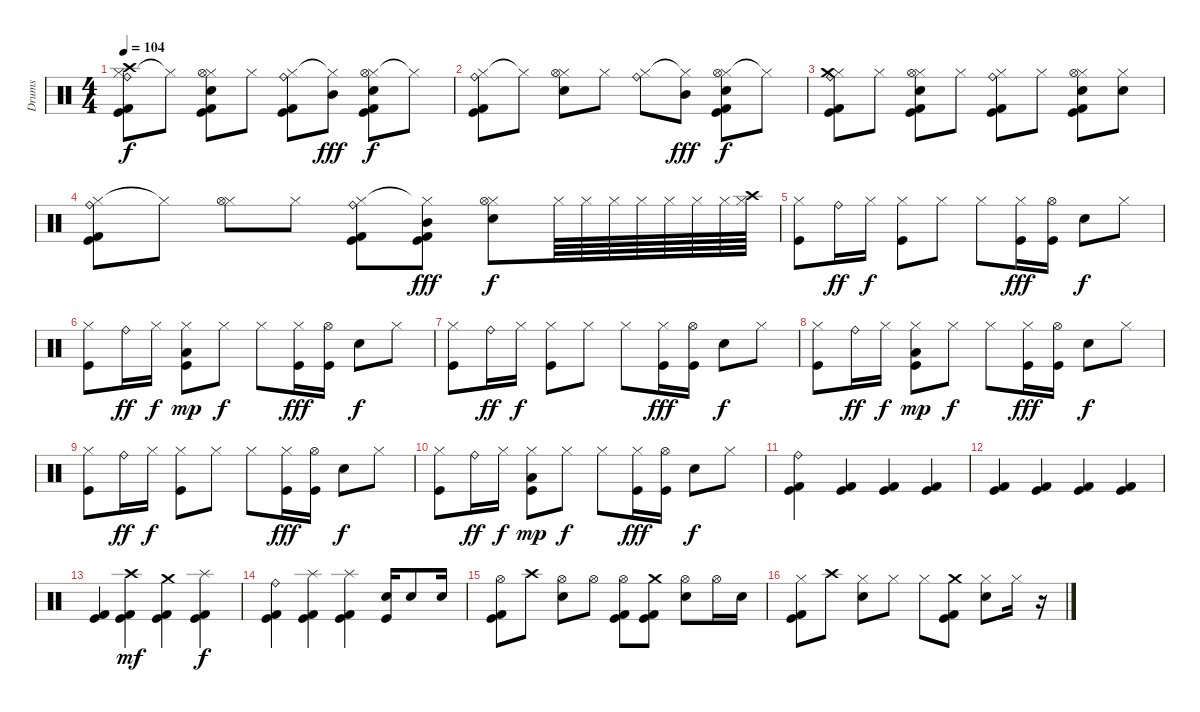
\track ("Drums" "Drums") {instrument percussion}
\staff {score}
\articulation defaults
\ts (4 4)
\tempo 104
\clef neutral
\ks c
("Hi-Hat (closed)" "Ride (bell)" "Crash high (hit)" "Kick (hit) 2" "Kick (hit)").8{dy f} "Hi-Hat (closed)"{t}.8 ("Hi-Hat (closed)" "Hi-Hat (open)" "Snare (hit) 2" "Kick (hit)" "Kick (hit) 2").8 "Hi-Hat (closed)".8 ("Hi-Hat (closed)" "Ride (bell)" "Kick (hit)" "Kick (hit) 2").8 ("Hi-Hat (closed)"{t} "Mid Tom (hit)").8{dy fff} ("Hi-Hat (closed)" "Hi-Hat (open)" "Snare (hit) 2" "Kick (hit)" "Kick (hit) 2").8{dy f} "Hi-Hat (closed)"{t}.8 |
("Hi-Hat (closed)" "Ride (bell)" "Kick (hit) 2" "Kick (hit)").8 "Hi-Hat (closed)"{t}.8 ("Hi-Hat (closed)" "Hi-Hat (open)" "Snare (hit) 2").8 "Hi-Hat (closed)".8 ("Hi-Hat (closed)" "Ride (bell)").8 ("Hi-Hat (closed)"{t} "Mid Tom (hit)").8{dy fff} ("Hi-Hat (closed)" "Hi-Hat (open)" "Snare (hit) 2" "Kick (hit)" "Kick (hit) 2").8{dy f} "Hi-Hat (closed)"{t}.8 |
("Hi-Hat (closed)" "Ride (bell)" "Crash medium (hit)" "Kick (hit) 2" "Kick (hit)").8 "Hi-Hat (closed)".8 ("Hi-Hat (closed)" "Hi-Hat (open)" "Snare (hit) 2" "Kick (hit)" "Kick (hit) 2").8 "Hi-Hat (closed)".8 ("Hi-Hat (closed)" "Ride (bell)" "Kick (hit)" "Kick (hit) 2").8 "Hi-Hat (closed)".8 ("Hi-Hat (closed)" "Hi-Hat (open)" "Snare (hit) 2" "Kick (hit)" "Kick (hit) 2").8 ("Hi-Hat (closed)" "Snare (hit) 2").8 |
("Hi-Hat (closed)" "Ride (bell)" "Kick (hit) 2" "Kick (hit)").8 "Hi-Hat (closed)"{t}.8 ("Hi-Hat (closed)" "Hi-Hat (open)").8 "Hi-Hat (closed)".8 ("Hi-Hat (closed)" "Ride (bell)" "Kick (hit)" "Kick (hit) 2").8 ("Hi-Hat (closed)"{t} "Mid Tom (hit)" "Kick (hit)" "Kick (hit) 2").8{dy fff} ("Hi-Hat (closed)" "Hi-Hat (open)" "Snare (hit) 2").8{dy f} "Hi-Hat (closed)".64 "Hi-Hat (closed)".64 "Hi-Hat (closed)".64 "Hi-Hat (closed)".64 "Hi-Hat (closed)".64 "Hi-Hat (closed)".64 "Hi-Hat (closed)".64 ("Hi-Hat (closed)" "Crash high (hit)").64 |
("Hi-Hat (closed)" "Kick (hit)").8 "Ride (bell)".16{dy ff} "Hi-Hat (closed)".16{dy f} ("Hi-Hat (closed)" "Kick (hit)").8 "Hi-Hat (closed)".8 "Hi-Hat (closed)".8 ("Hi-Hat (closed)" "Kick (hit)").16{dy fff} ("Hi-Hat (open)" "Kick (hit)").16 "Snare (hit) 2".8{dy f} "Hi-Hat (closed)".8 |
("Hi-Hat (closed)" "Kick (hit)").8 "Ride (bell)".16{dy ff} "Hi-Hat (closed)".16{dy f} ("Hi-Hat (closed)" "Low Tom (hit)" "Kick (hit)").8{dy mp} "Hi-Hat (closed)".8{dy f} "Hi-Hat (closed)".8 ("Hi-Hat (closed)" "Kick (hit)").16{dy fff} ("Hi-Hat (open)" "Kick (hit)").16 "Snare (hit) 2".8{dy f} "Hi-Hat (closed)".8 |
("Hi-Hat (closed)" "Kick (hit)").8 "Ride (bell)".16{dy ff} "Hi-Hat (closed)".16{dy f} ("Hi-Hat (closed)" "Kick (hit)").8 "Hi-Hat (closed)".8 "Hi-Hat (closed)".8 ("Hi-Hat (closed)" "Kick (hit)").16{dy fff} ("Hi-Hat (open)" "Kick (hit)").16 "Snare (hit) 2".8{dy f} "Hi-Hat (closed)".8 |
("Hi-Hat (closed)" "Kick (hit)").8 "Ride (bell)".16{dy ff} "Hi-Hat (closed)".16{dy f} ("Hi-Hat (closed)" "Low Tom (hit)" "Kick (hit)").8{dy mp} "Hi-Hat (closed)".8{dy f} "Hi-Hat (closed)".8 ("Hi-Hat (closed)" "Kick (hit)").16{dy fff} ("Hi-Hat (open)" "Kick (hit)").16 "Snare (hit) 2".8{dy f} "Hi-Hat (closed)".8 |
("Hi-Hat (closed)" "Kick (hit)").8 "Ride (bell)".16{dy ff} "Hi-Hat (closed)".16{dy f} ("Hi-Hat (closed)" "Kick (hit)").8 "Hi-Hat (closed)".8 "Hi-Hat (closed)".8 ("Hi-Hat (closed)" "Kick (hit)").16{dy fff} ("Hi-Hat (open)" "Kick (hit)").16 "Snare (hit) 2".8{dy f} "Hi-Hat (closed)".8 |
("Hi-Hat (closed)" "Kick (hit)").8 "Ride (bell)".16{dy ff} "Hi-Hat (closed)".16{dy f} ("Hi-Hat (closed)" "Low Tom (hit)" "Kick (hit)").8{dy mp} "Hi-Hat (closed)".8{dy f} "Hi-Hat (closed)".8 ("Hi-Hat (closed)" "Kick (hit)").16{dy fff} ("Hi-Hat (open)" "Kick (hit)").16 "Snare (hit) 2".8{dy f} "Hi-Hat (closed)".8 |
("Ride (bell)" "Kick (hit) 2" "Kick (hit)").4 ("Kick (hit) 2" "Kick (hit)").4 ("Kick (hit) 2" "Kick (hit)").4 ("Kick (hit) 2" "Kick (hit)").4 |
("Kick (hit) 2" "Kick (hit)").4 ("Kick (hit) 2" "Kick (hit)").4 ("Kick (hit) 2" "Kick (hit)").4 ("Kick (hit) 2" "Kick (hit)").4 |
("Kick (hit) 2" "Kick (hit)").4 ("Crash high (hit)" "Kick (hit) 2" "Kick (hit)").4{dy mf} ("Crash medium (hit)" "Kick (hit) 2" "Kick (hit)").4 ("Splash (hit)" "Kick (hit) 2" "Kick (hit)").4{dy f} |
("Ride (bell)" "Kick (hit) 2" "Kick (hit)").4 ("Splash (hit)" "Kick (hit) 2" "Kick (hit)").4 ("Splash (hit)" "Kick (hit) 2" "Kick (hit)").4 ("Snare (hit) 2" "Kick (hit)").16 "Snare (hit) 2".8 "Snare (hit) 2".16 |
("Hi-Hat (open)" "Kick (hit) 2" "Kick (hit)").8 "Crash high (hit)".8 ("Hi-Hat (open)" "Snare (hit) 2").8 "Hi-Hat (open)".8 ("Hi-Hat (open)" "Kick (hit)" "Kick (hit) 2").8 ("Crash medium (hit)" "Kick (hit)" "Kick (hit) 2").8 ("Hi-Hat (open)" "Snare (hit) 2").8 "Hi-Hat (open)".16 "Snare (hit) 2".16 |
("Hi-Hat (closed)" "Kick (hit) 2" "Kick (hit)").8 "Crash high (hit)".8 ("Hi-Hat (closed)" "Snare (hit) 2").8 "Hi-Hat (closed)".8 "Hi-Hat (closed)".8 ("Crash medium (hit)" "Kick (hit)" "Kick (hit) 2").8 ("Hi-Hat (closed)" "Snare (hit) 2").8 "Hi-Hat (closed)".16 r.16
